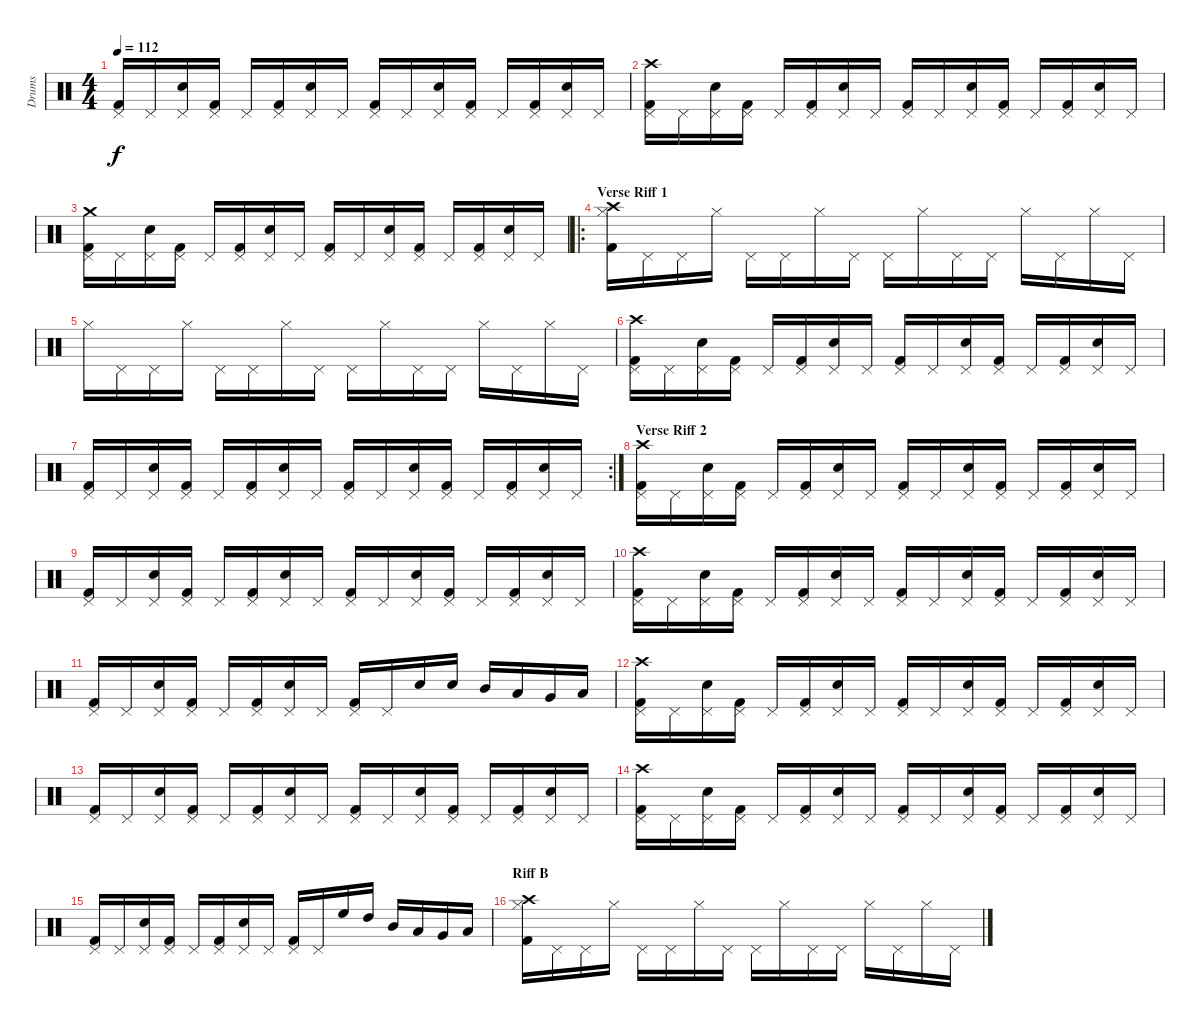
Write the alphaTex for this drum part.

\track ("Drums" "Drums") {instrument percussion}
\staff {score}
\articulation defaults
\ts (4 4)
\tempo 112
\clef neutral
\ks c
("Kick (hit) 2" "Pedal Hi-Hat (hit)").16{dy f} "Pedal Hi-Hat (hit)".16 ("Snare (hit) 2" "Pedal Hi-Hat (hit)").16 ("Kick (hit) 2" "Pedal Hi-Hat (hit)").16 "Pedal Hi-Hat (hit)".16 ("Kick (hit) 2" "Pedal Hi-Hat (hit)").16 ("Snare (hit) 2" "Pedal Hi-Hat (hit)").16 "Pedal Hi-Hat (hit)".16 ("Kick (hit) 2" "Pedal Hi-Hat (hit)").16 "Pedal Hi-Hat (hit)".16 ("Snare (hit) 2" "Pedal Hi-Hat (hit)").16 ("Kick (hit) 2" "Pedal Hi-Hat (hit)").16 "Pedal Hi-Hat (hit)".16 ("Kick (hit) 2" "Pedal Hi-Hat (hit)").16 ("Snare (hit) 2" "Pedal Hi-Hat (hit)").16 "Pedal Hi-Hat (hit)".16 |
("Kick (hit) 2" "Pedal Hi-Hat (hit)" "Crash high (hit)").16 "Pedal Hi-Hat (hit)".16 ("Snare (hit) 2" "Pedal Hi-Hat (hit)").16 ("Kick (hit) 2" "Pedal Hi-Hat (hit)").16 "Pedal Hi-Hat (hit)".16 ("Kick (hit) 2" "Pedal Hi-Hat (hit)").16 ("Snare (hit) 2" "Pedal Hi-Hat (hit)").16 "Pedal Hi-Hat (hit)".16 ("Kick (hit) 2" "Pedal Hi-Hat (hit)").16 "Pedal Hi-Hat (hit)".16 ("Snare (hit) 2" "Pedal Hi-Hat (hit)").16 ("Kick (hit) 2" "Pedal Hi-Hat (hit)").16 "Pedal Hi-Hat (hit)".16 ("Kick (hit) 2" "Pedal Hi-Hat (hit)").16 ("Snare (hit) 2" "Pedal Hi-Hat (hit)").16 "Pedal Hi-Hat (hit)".16 |
("Kick (hit) 2" "Pedal Hi-Hat (hit)" "Crash medium (hit)").16 "Pedal Hi-Hat (hit)".16 ("Snare (hit) 2" "Pedal Hi-Hat (hit)").16 ("Kick (hit) 2" "Pedal Hi-Hat (hit)").16 "Pedal Hi-Hat (hit)".16 ("Kick (hit) 2" "Pedal Hi-Hat (hit)").16 ("Snare (hit) 2" "Pedal Hi-Hat (hit)").16 "Pedal Hi-Hat (hit)".16 ("Kick (hit) 2" "Pedal Hi-Hat (hit)").16 "Pedal Hi-Hat (hit)".16 ("Snare (hit) 2" "Pedal Hi-Hat (hit)").16 ("Kick (hit) 2" "Pedal Hi-Hat (hit)").16 "Pedal Hi-Hat (hit)".16 ("Kick (hit) 2" "Pedal Hi-Hat (hit)").16 ("Snare (hit) 2" "Pedal Hi-Hat (hit)").16 "Pedal Hi-Hat (hit)".16 |
\ro
\section ("" "Verse Riff 1")
("Kick (hit) 2" "Hi-Hat (closed)" "Crash high (hit)").16 "Pedal Hi-Hat (hit)".16 "Pedal Hi-Hat (hit)".16 "Hi-Hat (closed)".16 "Pedal Hi-Hat (hit)".16 "Pedal Hi-Hat (hit)".16 "Hi-Hat (closed)".16 "Pedal Hi-Hat (hit)".16 "Pedal Hi-Hat (hit)".16 "Hi-Hat (closed)".16 "Pedal Hi-Hat (hit)".16 "Pedal Hi-Hat (hit)".16 "Hi-Hat (closed)".16 "Pedal Hi-Hat (hit)".16 "Hi-Hat (closed)".16 "Pedal Hi-Hat (hit)".16 |
"Hi-Hat (closed)".16 "Pedal Hi-Hat (hit)".16 "Pedal Hi-Hat (hit)".16 "Hi-Hat (closed)".16 "Pedal Hi-Hat (hit)".16 "Pedal Hi-Hat (hit)".16 "Hi-Hat (closed)".16 "Pedal Hi-Hat (hit)".16 "Pedal Hi-Hat (hit)".16 "Hi-Hat (closed)".16 "Pedal Hi-Hat (hit)".16 "Pedal Hi-Hat (hit)".16 "Hi-Hat (closed)".16 "Pedal Hi-Hat (hit)".16 "Hi-Hat (closed)".16 "Pedal Hi-Hat (hit)".16 |
("Kick (hit) 2" "Pedal Hi-Hat (hit)" "Crash high (hit)").16 "Pedal Hi-Hat (hit)".16 ("Snare (hit) 2" "Pedal Hi-Hat (hit)").16 ("Kick (hit) 2" "Pedal Hi-Hat (hit)").16 "Pedal Hi-Hat (hit)".16 ("Kick (hit) 2" "Pedal Hi-Hat (hit)").16 ("Snare (hit) 2" "Pedal Hi-Hat (hit)").16 "Pedal Hi-Hat (hit)".16 ("Kick (hit) 2" "Pedal Hi-Hat (hit)").16 "Pedal Hi-Hat (hit)".16 ("Snare (hit) 2" "Pedal Hi-Hat (hit)").16 ("Kick (hit) 2" "Pedal Hi-Hat (hit)").16 "Pedal Hi-Hat (hit)".16 ("Kick (hit) 2" "Pedal Hi-Hat (hit)").16 ("Snare (hit) 2" "Pedal Hi-Hat (hit)").16 "Pedal Hi-Hat (hit)".16 |
\rc 2
("Kick (hit) 2" "Pedal Hi-Hat (hit)").16 "Pedal Hi-Hat (hit)".16 ("Snare (hit) 2" "Pedal Hi-Hat (hit)").16 ("Kick (hit) 2" "Pedal Hi-Hat (hit)").16 "Pedal Hi-Hat (hit)".16 ("Kick (hit) 2" "Pedal Hi-Hat (hit)").16 ("Snare (hit) 2" "Pedal Hi-Hat (hit)").16 "Pedal Hi-Hat (hit)".16 ("Kick (hit) 2" "Pedal Hi-Hat (hit)").16 "Pedal Hi-Hat (hit)".16 ("Snare (hit) 2" "Pedal Hi-Hat (hit)").16 ("Kick (hit) 2" "Pedal Hi-Hat (hit)").16 "Pedal Hi-Hat (hit)".16 ("Kick (hit) 2" "Pedal Hi-Hat (hit)").16 ("Snare (hit) 2" "Pedal Hi-Hat (hit)").16 "Pedal Hi-Hat (hit)".16 |
\section ("" "Verse Riff 2")
("Kick (hit) 2" "Pedal Hi-Hat (hit)" "Crash high (hit)").16 "Pedal Hi-Hat (hit)".16 ("Snare (hit) 2" "Pedal Hi-Hat (hit)").16 ("Kick (hit) 2" "Pedal Hi-Hat (hit)").16 "Pedal Hi-Hat (hit)".16 ("Kick (hit) 2" "Pedal Hi-Hat (hit)").16 ("Snare (hit) 2" "Pedal Hi-Hat (hit)").16 "Pedal Hi-Hat (hit)".16 ("Kick (hit) 2" "Pedal Hi-Hat (hit)").16 "Pedal Hi-Hat (hit)".16 ("Snare (hit) 2" "Pedal Hi-Hat (hit)").16 ("Kick (hit) 2" "Pedal Hi-Hat (hit)").16 "Pedal Hi-Hat (hit)".16 ("Kick (hit) 2" "Pedal Hi-Hat (hit)").16 ("Snare (hit) 2" "Pedal Hi-Hat (hit)").16 "Pedal Hi-Hat (hit)".16 |
("Kick (hit) 2" "Pedal Hi-Hat (hit)").16 "Pedal Hi-Hat (hit)".16 ("Snare (hit) 2" "Pedal Hi-Hat (hit)").16 ("Kick (hit) 2" "Pedal Hi-Hat (hit)").16 "Pedal Hi-Hat (hit)".16 ("Kick (hit) 2" "Pedal Hi-Hat (hit)").16 ("Snare (hit) 2" "Pedal Hi-Hat (hit)").16 "Pedal Hi-Hat (hit)".16 ("Kick (hit) 2" "Pedal Hi-Hat (hit)").16 "Pedal Hi-Hat (hit)".16 ("Snare (hit) 2" "Pedal Hi-Hat (hit)").16 ("Kick (hit) 2" "Pedal Hi-Hat (hit)").16 "Pedal Hi-Hat (hit)".16 ("Kick (hit) 2" "Pedal Hi-Hat (hit)").16 ("Snare (hit) 2" "Pedal Hi-Hat (hit)").16 "Pedal Hi-Hat (hit)".16 |
("Kick (hit) 2" "Pedal Hi-Hat (hit)" "Crash high (hit)").16 "Pedal Hi-Hat (hit)".16 ("Snare (hit) 2" "Pedal Hi-Hat (hit)").16 ("Kick (hit) 2" "Pedal Hi-Hat (hit)").16 "Pedal Hi-Hat (hit)".16 ("Kick (hit) 2" "Pedal Hi-Hat (hit)").16 ("Snare (hit) 2" "Pedal Hi-Hat (hit)").16 "Pedal Hi-Hat (hit)".16 ("Kick (hit) 2" "Pedal Hi-Hat (hit)").16 "Pedal Hi-Hat (hit)".16 ("Snare (hit) 2" "Pedal Hi-Hat (hit)").16 ("Kick (hit) 2" "Pedal Hi-Hat (hit)").16 "Pedal Hi-Hat (hit)".16 ("Kick (hit) 2" "Pedal Hi-Hat (hit)").16 ("Snare (hit) 2" "Pedal Hi-Hat (hit)").16 "Pedal Hi-Hat (hit)".16 |
("Kick (hit) 2" "Pedal Hi-Hat (hit)").16 "Pedal Hi-Hat (hit)".16 ("Snare (hit) 2" "Pedal Hi-Hat (hit)").16 ("Kick (hit) 2" "Pedal Hi-Hat (hit)").16 "Pedal Hi-Hat (hit)".16 ("Kick (hit) 2" "Pedal Hi-Hat (hit)").16 ("Snare (hit) 2" "Pedal Hi-Hat (hit)").16 "Pedal Hi-Hat (hit)".16 ("Kick (hit) 2" "Pedal Hi-Hat (hit)").16 "Pedal Hi-Hat (hit)".16 "Snare (hit) 2".16 "Snare (hit) 2".16 "Mid Tom (hit)".16 "Low Tom (hit)".16 "Very Low Tom (hit)".16 "Low Floor Tom (hit)".16 |
("Kick (hit) 2" "Pedal Hi-Hat (hit)" "Crash high (hit)").16 "Pedal Hi-Hat (hit)".16 ("Snare (hit) 2" "Pedal Hi-Hat (hit)").16 ("Kick (hit) 2" "Pedal Hi-Hat (hit)").16 "Pedal Hi-Hat (hit)".16 ("Kick (hit) 2" "Pedal Hi-Hat (hit)").16 ("Snare (hit) 2" "Pedal Hi-Hat (hit)").16 "Pedal Hi-Hat (hit)".16 ("Kick (hit) 2" "Pedal Hi-Hat (hit)").16 "Pedal Hi-Hat (hit)".16 ("Snare (hit) 2" "Pedal Hi-Hat (hit)").16 ("Kick (hit) 2" "Pedal Hi-Hat (hit)").16 "Pedal Hi-Hat (hit)".16 ("Kick (hit) 2" "Pedal Hi-Hat (hit)").16 ("Snare (hit) 2" "Pedal Hi-Hat (hit)").16 "Pedal Hi-Hat (hit)".16 |
("Kick (hit) 2" "Pedal Hi-Hat (hit)").16 "Pedal Hi-Hat (hit)".16 ("Snare (hit) 2" "Pedal Hi-Hat (hit)").16 ("Kick (hit) 2" "Pedal Hi-Hat (hit)").16 "Pedal Hi-Hat (hit)".16 ("Kick (hit) 2" "Pedal Hi-Hat (hit)").16 ("Snare (hit) 2" "Pedal Hi-Hat (hit)").16 "Pedal Hi-Hat (hit)".16 ("Kick (hit) 2" "Pedal Hi-Hat (hit)").16 "Pedal Hi-Hat (hit)".16 ("Snare (hit) 2" "Pedal Hi-Hat (hit)").16 ("Kick (hit) 2" "Pedal Hi-Hat (hit)").16 "Pedal Hi-Hat (hit)".16 ("Kick (hit) 2" "Pedal Hi-Hat (hit)").16 ("Snare (hit) 2" "Pedal Hi-Hat (hit)").16 "Pedal Hi-Hat (hit)".16 |
("Kick (hit) 2" "Pedal Hi-Hat (hit)" "Crash high (hit)").16 "Pedal Hi-Hat (hit)".16 ("Snare (hit) 2" "Pedal Hi-Hat (hit)").16 ("Kick (hit) 2" "Pedal Hi-Hat (hit)").16 "Pedal Hi-Hat (hit)".16 ("Kick (hit) 2" "Pedal Hi-Hat (hit)").16 ("Snare (hit) 2" "Pedal Hi-Hat (hit)").16 "Pedal Hi-Hat (hit)".16 ("Kick (hit) 2" "Pedal Hi-Hat (hit)").16 "Pedal Hi-Hat (hit)".16 ("Snare (hit) 2" "Pedal Hi-Hat (hit)").16 ("Kick (hit) 2" "Pedal Hi-Hat (hit)").16 "Pedal Hi-Hat (hit)".16 ("Kick (hit) 2" "Pedal Hi-Hat (hit)").16 ("Snare (hit) 2" "Pedal Hi-Hat (hit)").16 "Pedal Hi-Hat (hit)".16 |
("Kick (hit) 2" "Pedal Hi-Hat (hit)").16 "Pedal Hi-Hat (hit)".16 ("Snare (hit) 2" "Pedal Hi-Hat (hit)").16 ("Kick (hit) 2" "Pedal Hi-Hat (hit)").16 "Pedal Hi-Hat (hit)".16 ("Kick (hit) 2" "Pedal Hi-Hat (hit)").16 ("Snare (hit) 2" "Pedal Hi-Hat (hit)").16 "Pedal Hi-Hat (hit)".16 ("Kick (hit) 2" "Pedal Hi-Hat (hit)").16 "Pedal Hi-Hat (hit)".16 "High Floor Tom (hit)".16 "High Tom (hit)".16 "Mid Tom (hit)".16 "Low Tom (hit)".16 "Very Low Tom (hit)".16 "Low Floor Tom (hit)".16 |
\section ("" "Riff B")
("Kick (hit) 2" "Hi-Hat (closed)" "Crash high (hit)").16 "Pedal Hi-Hat (hit)".16 "Pedal Hi-Hat (hit)".16 "Hi-Hat (closed)".16 "Pedal Hi-Hat (hit)".16 "Pedal Hi-Hat (hit)".16 "Hi-Hat (closed)".16 "Pedal Hi-Hat (hit)".16 "Pedal Hi-Hat (hit)".16 "Hi-Hat (closed)".16 "Pedal Hi-Hat (hit)".16 "Pedal Hi-Hat (hit)".16 "Hi-Hat (closed)".16 "Pedal Hi-Hat (hit)".16 "Hi-Hat (closed)".16 "Pedal Hi-Hat (hit)".16
